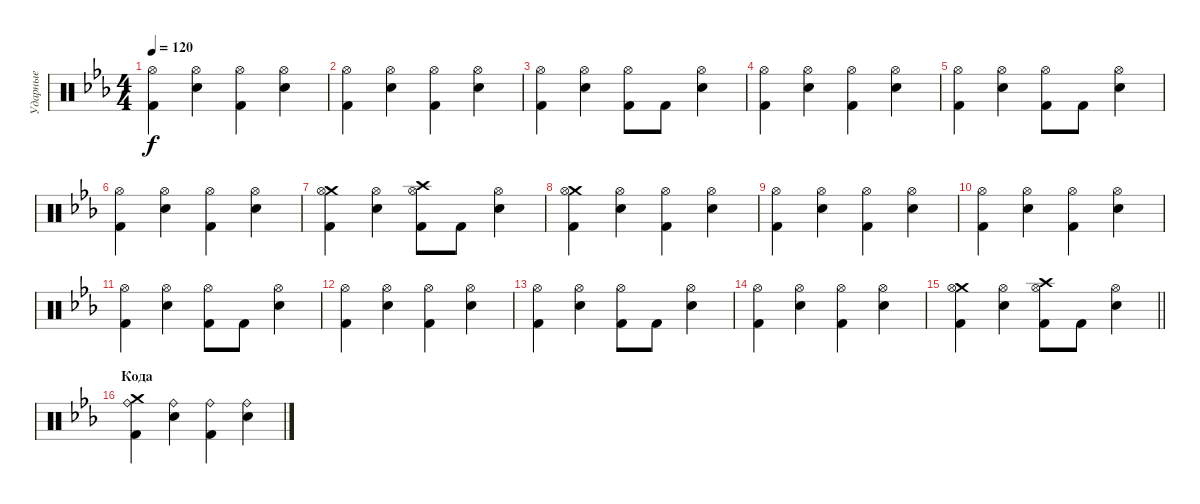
\track ("Ударные" "Ударные") {instrument percussion}
\staff {score}
\articulation defaults
\ts (4 4)
\tempo 120
\clef neutral
\ks cminor
("Kick (hit) 2" "Hi-Hat (open)").4{dy f} ("Electric Snare (hit)" "Hi-Hat (open)").4 ("Kick (hit) 2" "Hi-Hat (open)").4 ("Electric Snare (hit)" "Hi-Hat (open)").4 |
("Kick (hit) 2" "Hi-Hat (open)").4 ("Electric Snare (hit)" "Hi-Hat (open)").4 ("Kick (hit) 2" "Hi-Hat (open)").4 ("Electric Snare (hit)" "Hi-Hat (open)").4 |
("Kick (hit) 2" "Hi-Hat (open)").4 ("Electric Snare (hit)" "Hi-Hat (open)").4 ("Kick (hit) 2" "Hi-Hat (open)").8 "Kick (hit) 2".8 ("Electric Snare (hit)" "Hi-Hat (open)").4 |
("Kick (hit) 2" "Hi-Hat (open)").4 ("Electric Snare (hit)" "Hi-Hat (open)").4 ("Kick (hit) 2" "Hi-Hat (open)").4 ("Electric Snare (hit)" "Hi-Hat (open)").4 |
("Kick (hit) 2" "Hi-Hat (open)").4 ("Electric Snare (hit)" "Hi-Hat (open)").4 ("Kick (hit) 2" "Hi-Hat (open)").8 "Kick (hit) 2".8 ("Electric Snare (hit)" "Hi-Hat (open)").4 |
("Kick (hit) 2" "Hi-Hat (open)").4 ("Electric Snare (hit)" "Hi-Hat (open)").4 ("Kick (hit) 2" "Hi-Hat (open)").4 ("Electric Snare (hit)" "Hi-Hat (open)").4 |
("Crash medium (hit)" "Kick (hit) 2" "Hi-Hat (open)").4 ("Electric Snare (hit)" "Hi-Hat (open)").4 ("Crash high (hit)" "Kick (hit) 2" "Hi-Hat (open)").8 "Kick (hit) 2".8 ("Electric Snare (hit)" "Hi-Hat (open)").4 |
("Crash medium (hit)" "Kick (hit) 2" "Hi-Hat (open)").4 ("Electric Snare (hit)" "Hi-Hat (open)").4 ("Kick (hit) 2" "Hi-Hat (open)").4 ("Electric Snare (hit)" "Hi-Hat (open)").4 |
("Kick (hit) 2" "Hi-Hat (open)").4 ("Electric Snare (hit)" "Hi-Hat (open)").4 ("Kick (hit) 2" "Hi-Hat (open)").4 ("Electric Snare (hit)" "Hi-Hat (open)").4 |
("Kick (hit) 2" "Hi-Hat (open)").4 ("Electric Snare (hit)" "Hi-Hat (open)").4 ("Kick (hit) 2" "Hi-Hat (open)").4 ("Electric Snare (hit)" "Hi-Hat (open)").4 |
("Kick (hit) 2" "Hi-Hat (open)").4 ("Electric Snare (hit)" "Hi-Hat (open)").4 ("Kick (hit) 2" "Hi-Hat (open)").8 "Kick (hit) 2".8 ("Electric Snare (hit)" "Hi-Hat (open)").4 |
("Kick (hit) 2" "Hi-Hat (open)").4 ("Electric Snare (hit)" "Hi-Hat (open)").4 ("Kick (hit) 2" "Hi-Hat (open)").4 ("Electric Snare (hit)" "Hi-Hat (open)").4 |
("Kick (hit) 2" "Hi-Hat (open)").4 ("Electric Snare (hit)" "Hi-Hat (open)").4 ("Kick (hit) 2" "Hi-Hat (open)").8 "Kick (hit) 2".8 ("Electric Snare (hit)" "Hi-Hat (open)").4 |
("Kick (hit) 2" "Hi-Hat (open)").4 ("Electric Snare (hit)" "Hi-Hat (open)").4 ("Kick (hit) 2" "Hi-Hat (open)").4 ("Electric Snare (hit)" "Hi-Hat (open)").4 |
\barLineRight lightlight
("Crash medium (hit)" "Kick (hit) 2" "Hi-Hat (open)").4 ("Electric Snare (hit)" "Hi-Hat (open)").4 ("Crash high (hit)" "Kick (hit) 2" "Hi-Hat (open)").8 "Kick (hit) 2".8 ("Electric Snare (hit)" "Hi-Hat (open)").4 |
\section ("" "Кода")
("Crash medium (hit)" "Kick (hit) 2" "Ride (bell)").4 ("Electric Snare (hit)" "Ride (bell)").4 ("Kick (hit) 2" "Ride (bell)").4 ("Electric Snare (hit)" "Ride (bell)").4
